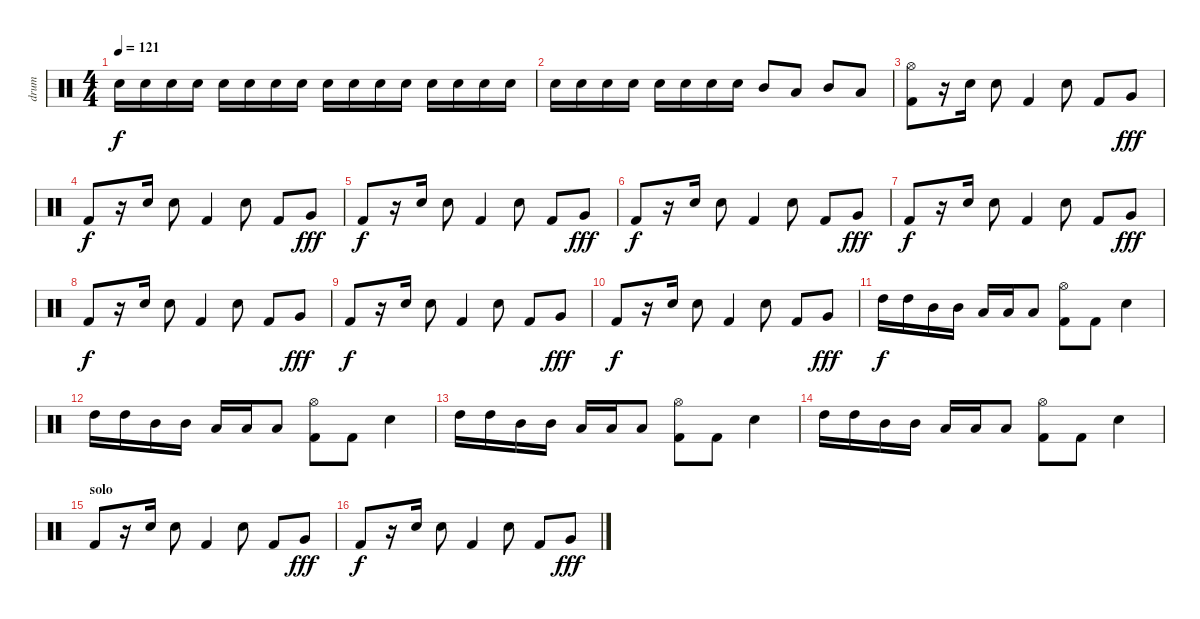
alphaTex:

\track ("drum" "drum") {instrument percussion}
\staff {score}
\articulation defaults
\ts (4 4)
\tempo 121
\clef neutral
\ks c "Electric Snare (hit)".16{dy f} "Electric Snare (hit)".16 "Electric Snare (hit)".16 "Electric Snare (hit)".16 "Electric Snare (hit)".16 "Electric Snare (hit)".16 "Electric Snare (hit)".16 "Electric Snare (hit)".16 "Electric Snare (hit)".16 "Electric Snare (hit)".16 "Electric Snare (hit)".16 "Electric Snare (hit)".16 "Electric Snare (hit)".16 "Electric Snare (hit)".16 "Electric Snare (hit)".16 "Electric Snare (hit)".16
|
"Electric Snare (hit)".16 "Electric Snare (hit)".16 "Electric Snare (hit)".16 "Electric Snare (hit)".16 "Electric Snare (hit)".16 "Electric Snare (hit)".16 "Electric Snare (hit)".16 "Electric Snare (hit)".16 "Mid Tom (hit)".8 "Low Tom (hit)".8 "Mid Tom (hit)".8 "Low Floor Tom (hit)".8 |
("Hi-Hat (open)" "Kick (hit) 2").8 r.16 "Electric Snare (hit)".16 "Electric Snare (hit)".8 "Kick (hit) 2".4 "Electric Snare (hit)".8 "Kick (hit) 2".8 "Very Low Tom (hit)".8{dy fff} |
"Kick (hit) 2".8{dy f} r.16 "Electric Snare (hit)".16 "Electric Snare (hit)".8 "Kick (hit) 2".4 "Electric Snare (hit)".8 "Kick (hit) 2".8 "Very Low Tom (hit)".8{dy fff} |
"Kick (hit) 2".8{dy f} r.16 "Electric Snare (hit)".16 "Electric Snare (hit)".8 "Kick (hit) 2".4 "Electric Snare (hit)".8 "Kick (hit) 2".8 "Very Low Tom (hit)".8{dy fff} |
"Kick (hit) 2".8{dy f} r.16 "Electric Snare (hit)".16 "Electric Snare (hit)".8 "Kick (hit) 2".4 "Electric Snare (hit)".8 "Kick (hit) 2".8 "Very Low Tom (hit)".8{dy fff} |
"Kick (hit) 2".8{dy f} r.16 "Electric Snare (hit)".16 "Electric Snare (hit)".8 "Kick (hit) 2".4 "Electric Snare (hit)".8 "Kick (hit) 2".8 "Very Low Tom (hit)".8{dy fff} |
"Kick (hit) 2".8{dy f} r.16 "Electric Snare (hit)".16 "Electric Snare (hit)".8 "Kick (hit) 2".4 "Electric Snare (hit)".8 "Kick (hit) 2".8 "Very Low Tom (hit)".8{dy fff} |
"Kick (hit) 2".8{dy f} r.16 "Electric Snare (hit)".16 "Electric Snare (hit)".8 "Kick (hit) 2".4 "Electric Snare (hit)".8 "Kick (hit) 2".8 "Very Low Tom (hit)".8{dy fff} |
"Kick (hit) 2".8{dy f} r.16 "Electric Snare (hit)".16 "Electric Snare (hit)".8 "Kick (hit) 2".4 "Electric Snare (hit)".8 "Kick (hit) 2".8 "Very Low Tom (hit)".8{dy fff} |
"High Tom (hit)".16{dy f} "High Tom (hit)".16 "Mid Tom (hit)".16 "Mid Tom (hit)".16 "Low Tom (hit)".16 "Low Tom (hit)".16 "Low Tom (hit)".8 ("Hi-Hat (open)" "Kick (hit) 2").8 "Kick (hit) 2".8 "Electric Snare (hit)".4 |
"High Tom (hit)".16 "High Tom (hit)".16 "Mid Tom (hit)".16 "Mid Tom (hit)".16 "Low Tom (hit)".16 "Low Tom (hit)".16 "Low Tom (hit)".8 ("Hi-Hat (open)" "Kick (hit) 2").8 "Kick (hit) 2".8 "Electric Snare (hit)".4 |
"High Tom (hit)".16 "High Tom (hit)".16 "Mid Tom (hit)".16 "Mid Tom (hit)".16 "Low Tom (hit)".16 "Low Tom (hit)".16 "Low Tom (hit)".8 ("Hi-Hat (open)" "Kick (hit) 2").8 "Kick (hit) 2".8 "Electric Snare (hit)".4 |
"High Tom (hit)".16 "High Tom (hit)".16 "Mid Tom (hit)".16 "Mid Tom (hit)".16 "Low Tom (hit)".16 "Low Tom (hit)".16 "Low Tom (hit)".8 ("Hi-Hat (open)" "Kick (hit) 2").8 "Kick (hit) 2".8 "Electric Snare (hit)".4 |
\section ("" "solo")
"Kick (hit) 2".8 r.16 "Electric Snare (hit)".16 "Electric Snare (hit)".8 "Kick (hit) 2".4 "Electric Snare (hit)".8 "Kick (hit) 2".8 "Very Low Tom (hit)".8{dy fff} |
"Kick (hit) 2".8{dy f} r.16 "Electric Snare (hit)".16 "Electric Snare (hit)".8 "Kick (hit) 2".4 "Electric Snare (hit)".8 "Kick (hit) 2".8 "Very Low Tom (hit)".8{dy fff}
